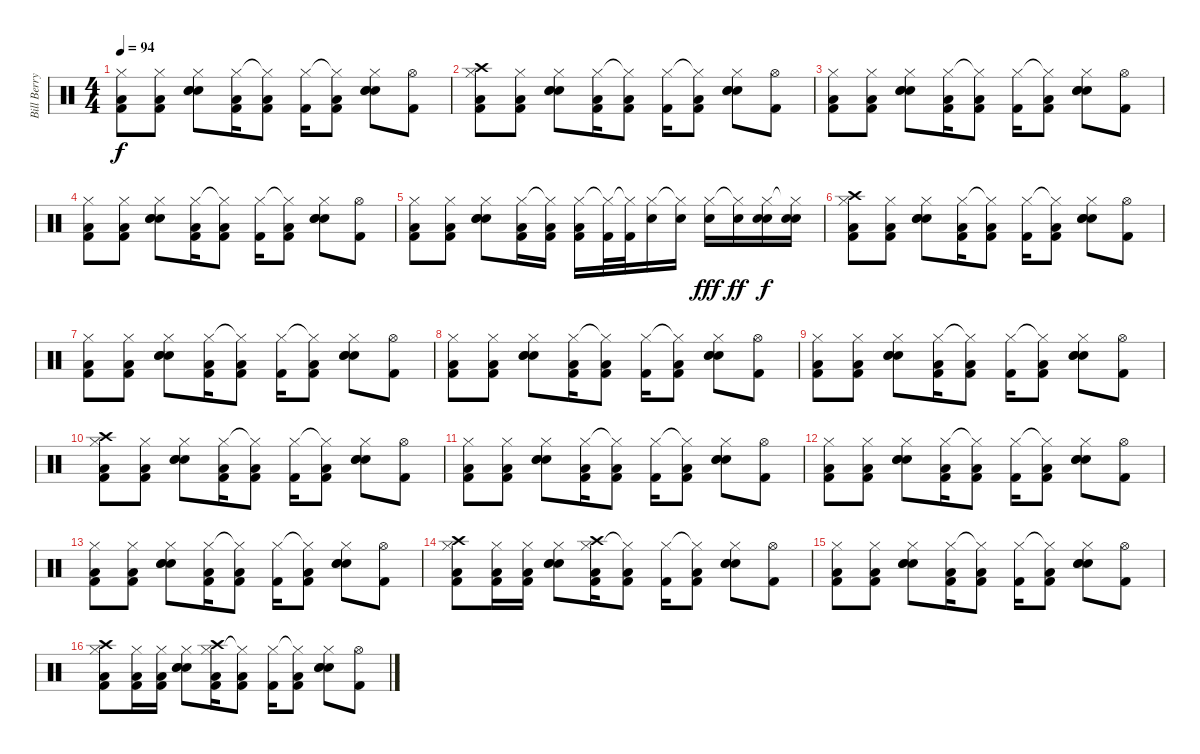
\track ("Bill Berry - Drums" "Bill Berry") {instrument percussion}
\staff {score}
\articulation defaults
\ts (4 4)
\tempo 94
\clef neutral
\ks c
("Hi-Hat (closed)" "Kick (hit) 2" "Low Tom (hit)").8{dy f} ("Hi-Hat (closed)" "Kick (hit) 2" "Low Tom (hit)").8 ("Hi-Hat (closed)" "Electric Snare (hit)" "Snare (hit) 2" "Electric Snare (hit)").8 ("Hi-Hat (closed)" "Kick (hit) 2" "Low Tom (hit)").16 ("Hi-Hat (closed)"{t} "Kick (hit) 2" "Low Tom (hit)").8 ("Hi-Hat (closed)" "Kick (hit) 2").16 ("Hi-Hat (closed)"{t} "Kick (hit) 2" "Low Tom (hit)").8 ("Hi-Hat (closed)" "Electric Snare (hit)" "Snare (hit) 2" "Electric Snare (hit)").8 ("Hi-Hat (open)" "Kick (hit) 2").8 |
("Hi-Hat (closed)" "Kick (hit) 2" "Low Tom (hit)" "Crash high (hit)").8 ("Hi-Hat (closed)" "Kick (hit) 2" "Low Tom (hit)").8 ("Hi-Hat (closed)" "Electric Snare (hit)" "Snare (hit) 2" "Electric Snare (hit)").8 ("Hi-Hat (closed)" "Kick (hit) 2" "Low Tom (hit)").16 ("Hi-Hat (closed)"{t} "Kick (hit) 2" "Low Tom (hit)").8 ("Hi-Hat (closed)" "Kick (hit) 2").16 ("Hi-Hat (closed)"{t} "Kick (hit) 2" "Low Tom (hit)").8 ("Hi-Hat (closed)" "Electric Snare (hit)" "Snare (hit) 2" "Electric Snare (hit)").8 ("Hi-Hat (open)" "Kick (hit) 2").8 |
("Hi-Hat (closed)" "Kick (hit) 2" "Low Tom (hit)").8 ("Hi-Hat (closed)" "Kick (hit) 2" "Low Tom (hit)").8 ("Hi-Hat (closed)" "Electric Snare (hit)" "Snare (hit) 2" "Electric Snare (hit)").8 ("Hi-Hat (closed)" "Kick (hit) 2" "Low Tom (hit)").16 ("Hi-Hat (closed)"{t} "Kick (hit) 2" "Low Tom (hit)").8 ("Hi-Hat (closed)" "Kick (hit) 2").16 ("Hi-Hat (closed)"{t} "Kick (hit) 2" "Low Tom (hit)").8 ("Hi-Hat (closed)" "Electric Snare (hit)" "Snare (hit) 2" "Electric Snare (hit)").8 ("Hi-Hat (open)" "Kick (hit) 2").8 |
("Hi-Hat (closed)" "Kick (hit) 2" "Low Tom (hit)").8 ("Hi-Hat (closed)" "Kick (hit) 2" "Low Tom (hit)").8 ("Hi-Hat (closed)" "Electric Snare (hit)" "Snare (hit) 2" "Electric Snare (hit)").8 ("Hi-Hat (closed)" "Kick (hit) 2" "Low Tom (hit)").16 ("Hi-Hat (closed)"{t} "Kick (hit) 2" "Low Tom (hit)").8 ("Hi-Hat (closed)" "Kick (hit) 2").16 ("Hi-Hat (closed)"{t} "Kick (hit) 2" "Low Tom (hit)").8 ("Hi-Hat (closed)" "Electric Snare (hit)" "Snare (hit) 2" "Electric Snare (hit)").8 ("Hi-Hat (open)" "Kick (hit) 2").8 |
("Hi-Hat (closed)" "Kick (hit) 2" "Low Tom (hit)").8 ("Hi-Hat (closed)" "Kick (hit) 2" "Low Tom (hit)").8 ("Hi-Hat (closed)" "Electric Snare (hit)" "Snare (hit) 2" "Electric Snare (hit)").8 ("Hi-Hat (closed)" "Kick (hit) 2" "Low Tom (hit)").16 ("Hi-Hat (closed)"{t} "Kick (hit) 2" "Low Tom (hit)").16 ("Hi-Hat (closed)" "Kick (hit) 2" "Low Tom (hit)").16 ("Hi-Hat (closed)"{t} "Kick (hit) 2").32 ("Hi-Hat (closed)"{t} "Kick (hit) 2").32 ("Hi-Hat (closed)" "Electric Snare (hit)").16 ("Hi-Hat (closed)"{t} "Electric Snare (hit)").16 ("Hi-Hat (closed)" "Electric Snare (hit)").16{dy fff} ("Hi-Hat (closed)"{t} "Electric Snare (hit)").16{dy ff} ("Hi-Hat (closed)" "Electric Snare (hit)" "Snare (hit) 2").16{dy f} ("Hi-Hat (closed)"{t} "Electric Snare (hit)" "Snare (hit) 2").16 |
("Hi-Hat (closed)" "Kick (hit) 2" "Low Tom (hit)" "Crash high (hit)").8 ("Hi-Hat (closed)" "Kick (hit) 2" "Low Tom (hit)").8 ("Hi-Hat (closed)" "Electric Snare (hit)" "Snare (hit) 2" "Electric Snare (hit)").8 ("Hi-Hat (closed)" "Kick (hit) 2" "Low Tom (hit)").16 ("Hi-Hat (closed)"{t} "Kick (hit) 2" "Low Tom (hit)").8 ("Hi-Hat (closed)" "Kick (hit) 2").16 ("Hi-Hat (closed)"{t} "Kick (hit) 2" "Low Tom (hit)").8 ("Hi-Hat (closed)" "Electric Snare (hit)" "Snare (hit) 2" "Electric Snare (hit)").8 ("Hi-Hat (open)" "Kick (hit) 2").8 |
("Hi-Hat (closed)" "Kick (hit) 2" "Low Tom (hit)").8 ("Hi-Hat (closed)" "Kick (hit) 2" "Low Tom (hit)").8 ("Hi-Hat (closed)" "Electric Snare (hit)" "Snare (hit) 2" "Electric Snare (hit)").8 ("Hi-Hat (closed)" "Kick (hit) 2" "Low Tom (hit)").16 ("Hi-Hat (closed)"{t} "Kick (hit) 2" "Low Tom (hit)").8 ("Hi-Hat (closed)" "Kick (hit) 2").16 ("Hi-Hat (closed)"{t} "Kick (hit) 2" "Low Tom (hit)").8 ("Hi-Hat (closed)" "Electric Snare (hit)" "Snare (hit) 2" "Electric Snare (hit)").8 ("Hi-Hat (open)" "Kick (hit) 2").8 |
("Hi-Hat (closed)" "Kick (hit) 2" "Low Tom (hit)").8 ("Hi-Hat (closed)" "Kick (hit) 2" "Low Tom (hit)").8 ("Hi-Hat (closed)" "Electric Snare (hit)" "Snare (hit) 2" "Electric Snare (hit)").8 ("Hi-Hat (closed)" "Kick (hit) 2" "Low Tom (hit)").16 ("Hi-Hat (closed)"{t} "Kick (hit) 2" "Low Tom (hit)").8 ("Hi-Hat (closed)" "Kick (hit) 2").16 ("Hi-Hat (closed)"{t} "Kick (hit) 2" "Low Tom (hit)").8 ("Hi-Hat (closed)" "Electric Snare (hit)" "Snare (hit) 2" "Electric Snare (hit)").8 ("Hi-Hat (open)" "Kick (hit) 2").8 |
("Hi-Hat (closed)" "Kick (hit) 2" "Low Tom (hit)").8 ("Hi-Hat (closed)" "Kick (hit) 2" "Low Tom (hit)").8 ("Hi-Hat (closed)" "Electric Snare (hit)" "Snare (hit) 2" "Electric Snare (hit)").8 ("Hi-Hat (closed)" "Kick (hit) 2" "Low Tom (hit)").16 ("Hi-Hat (closed)"{t} "Kick (hit) 2" "Low Tom (hit)").8 ("Hi-Hat (closed)" "Kick (hit) 2").16 ("Hi-Hat (closed)"{t} "Kick (hit) 2" "Low Tom (hit)").8 ("Hi-Hat (closed)" "Electric Snare (hit)" "Snare (hit) 2" "Electric Snare (hit)").8 ("Hi-Hat (open)" "Kick (hit) 2").8 |
("Hi-Hat (closed)" "Kick (hit) 2" "Low Tom (hit)" "Crash high (hit)").8 ("Hi-Hat (closed)" "Kick (hit) 2" "Low Tom (hit)").8 ("Hi-Hat (closed)" "Electric Snare (hit)" "Snare (hit) 2" "Electric Snare (hit)").8 ("Hi-Hat (closed)" "Kick (hit) 2" "Low Tom (hit)").16 ("Hi-Hat (closed)"{t} "Kick (hit) 2" "Low Tom (hit)").8 ("Hi-Hat (closed)" "Kick (hit) 2").16 ("Hi-Hat (closed)"{t} "Kick (hit) 2" "Low Tom (hit)").8 ("Hi-Hat (closed)" "Electric Snare (hit)" "Snare (hit) 2" "Electric Snare (hit)").8 ("Hi-Hat (open)" "Kick (hit) 2").8 |
("Hi-Hat (closed)" "Kick (hit) 2" "Low Tom (hit)").8 ("Hi-Hat (closed)" "Kick (hit) 2" "Low Tom (hit)").8 ("Hi-Hat (closed)" "Electric Snare (hit)" "Snare (hit) 2" "Electric Snare (hit)").8 ("Hi-Hat (closed)" "Kick (hit) 2" "Low Tom (hit)").16 ("Hi-Hat (closed)"{t} "Kick (hit) 2" "Low Tom (hit)").8 ("Hi-Hat (closed)" "Kick (hit) 2").16 ("Hi-Hat (closed)"{t} "Kick (hit) 2" "Low Tom (hit)").8 ("Hi-Hat (closed)" "Electric Snare (hit)" "Snare (hit) 2" "Electric Snare (hit)").8 ("Hi-Hat (open)" "Kick (hit) 2").8 |
("Hi-Hat (closed)" "Kick (hit) 2" "Low Tom (hit)").8 ("Hi-Hat (closed)" "Kick (hit) 2" "Low Tom (hit)").8 ("Hi-Hat (closed)" "Electric Snare (hit)" "Snare (hit) 2" "Electric Snare (hit)").8 ("Hi-Hat (closed)" "Kick (hit) 2" "Low Tom (hit)").16 ("Hi-Hat (closed)"{t} "Kick (hit) 2" "Low Tom (hit)").8 ("Hi-Hat (closed)" "Kick (hit) 2").16 ("Hi-Hat (closed)"{t} "Kick (hit) 2" "Low Tom (hit)").8 ("Hi-Hat (closed)" "Electric Snare (hit)" "Snare (hit) 2" "Electric Snare (hit)").8 ("Hi-Hat (open)" "Kick (hit) 2").8 |
("Hi-Hat (closed)" "Kick (hit) 2" "Low Tom (hit)").8 ("Hi-Hat (closed)" "Kick (hit) 2" "Low Tom (hit)").8 ("Hi-Hat (closed)" "Electric Snare (hit)" "Snare (hit) 2" "Electric Snare (hit)").8 ("Hi-Hat (closed)" "Kick (hit) 2" "Low Tom (hit)").16 ("Hi-Hat (closed)"{t} "Kick (hit) 2" "Low Tom (hit)").8 ("Hi-Hat (closed)" "Kick (hit) 2").16 ("Hi-Hat (closed)"{t} "Kick (hit) 2" "Low Tom (hit)").8 ("Hi-Hat (closed)" "Electric Snare (hit)" "Snare (hit) 2" "Electric Snare (hit)").8 ("Hi-Hat (open)" "Kick (hit) 2").8 |
("Hi-Hat (closed)" "Kick (hit) 2" "Low Tom (hit)" "Crash high (hit)").8 ("Hi-Hat (closed)" "Kick (hit) 2" "Low Tom (hit)").16 ("Hi-Hat (closed)" "Kick (hit) 2" "Low Tom (hit)").16 ("Hi-Hat (closed)" "Electric Snare (hit)" "Snare (hit) 2" "Electric Snare (hit)").8 ("Hi-Hat (closed)" "Kick (hit) 2" "Low Tom (hit)" "Crash high (hit)").16 ("Hi-Hat (closed)"{t} "Kick (hit) 2" "Low Tom (hit)").8 ("Hi-Hat (closed)" "Kick (hit) 2").16 ("Hi-Hat (closed)"{t} "Kick (hit) 2" "Low Tom (hit)").8 ("Hi-Hat (closed)" "Electric Snare (hit)" "Snare (hit) 2" "Electric Snare (hit)").8 ("Hi-Hat (open)" "Kick (hit) 2").8 |
("Hi-Hat (closed)" "Kick (hit) 2" "Low Tom (hit)").8 ("Hi-Hat (closed)" "Kick (hit) 2" "Low Tom (hit)").8 ("Hi-Hat (closed)" "Electric Snare (hit)" "Snare (hit) 2" "Electric Snare (hit)").8 ("Hi-Hat (closed)" "Kick (hit) 2" "Low Tom (hit)").16 ("Hi-Hat (closed)"{t} "Kick (hit) 2" "Low Tom (hit)").8 ("Hi-Hat (closed)" "Kick (hit) 2").16 ("Hi-Hat (closed)"{t} "Kick (hit) 2" "Low Tom (hit)").8 ("Hi-Hat (closed)" "Electric Snare (hit)" "Snare (hit) 2" "Electric Snare (hit)").8 ("Hi-Hat (open)" "Kick (hit) 2").8 |
("Hi-Hat (closed)" "Kick (hit) 2" "Low Tom (hit)" "Crash high (hit)").8 ("Hi-Hat (closed)" "Kick (hit) 2" "Low Tom (hit)").16 ("Hi-Hat (closed)" "Kick (hit) 2" "Low Tom (hit)").16 ("Hi-Hat (closed)" "Electric Snare (hit)" "Snare (hit) 2" "Electric Snare (hit)").8 ("Hi-Hat (closed)" "Kick (hit) 2" "Low Tom (hit)" "Crash high (hit)").16 ("Hi-Hat (closed)"{t} "Kick (hit) 2" "Low Tom (hit)").8 ("Hi-Hat (closed)" "Kick (hit) 2").16 ("Hi-Hat (closed)"{t} "Kick (hit) 2" "Low Tom (hit)").8 ("Hi-Hat (closed)" "Electric Snare (hit)" "Snare (hit) 2" "Electric Snare (hit)").8 ("Hi-Hat (open)" "Kick (hit) 2").8
